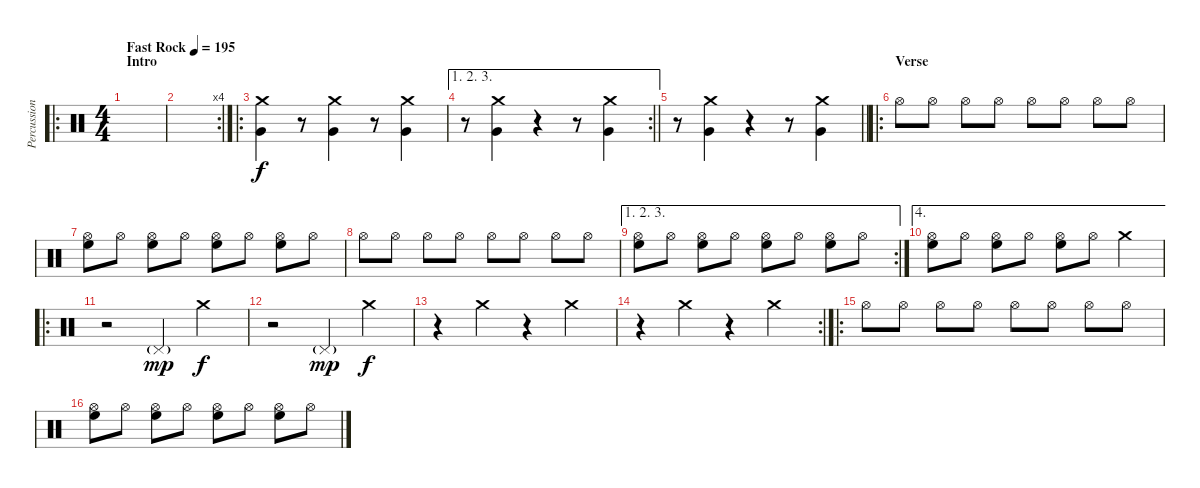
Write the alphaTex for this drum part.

\track ("Percussion" "Percussion") {instrument percussion}
\staff {score}
\articulation defaults
\ro
\ts (4 4)
\section ("" "Intro")
\tempo (195 "Fast Rock")
\clef neutral
\ks c
|
\rc 4
|
\ro
("Very Low Tom (hit)" "Crash medium (hit)").4 r.8 ("Very Low Tom (hit)" "Crash medium (hit)").4 r.8 ("Very Low Tom (hit)" "Crash medium (hit)").4 |
\ae (1 2 3)
\rc 2
\barLineRight lightlight
r.8 ("Very Low Tom (hit)" "Crash medium (hit)").4 r.4 r.8 ("Very Low Tom (hit)" "Crash medium (hit)").4 |
\barLineRight lightlight
r.8 ("Very Low Tom (hit)" "Crash medium (hit)").4 r.4 r.8 ("Very Low Tom (hit)" "Crash medium (hit)").4 |
\ro
\section ("" "Verse")
"Hi-Hat (open)".8 "Hi-Hat (open)".8 "Hi-Hat (open)".8 "Hi-Hat (open)".8 "Hi-Hat (open)".8 "Hi-Hat (open)".8 "Hi-Hat (open)".8 "Hi-Hat (open)".8 |
("High Floor Tom (hit)" "Hi-Hat (open)").8 "Hi-Hat (open)".8 ("High Floor Tom (hit)" "Hi-Hat (open)").8 "Hi-Hat (open)".8 ("High Floor Tom (hit)" "Hi-Hat (open)").8 "Hi-Hat (open)".8 ("High Floor Tom (hit)" "Hi-Hat (open)").8 "Hi-Hat (open)".8 |
"Hi-Hat (open)".8 "Hi-Hat (open)".8 "Hi-Hat (open)".8 "Hi-Hat (open)".8 "Hi-Hat (open)".8 "Hi-Hat (open)".8 "Hi-Hat (open)".8 "Hi-Hat (open)".8 |
\ae (1 2 3)
\rc 2
("High Floor Tom (hit)" "Hi-Hat (open)").8 "Hi-Hat (open)".8 ("High Floor Tom (hit)" "Hi-Hat (open)").8 "Hi-Hat (open)".8 ("High Floor Tom (hit)" "Hi-Hat (open)").8 "Hi-Hat (open)".8 ("High Floor Tom (hit)" "Hi-Hat (open)").8 "Hi-Hat (open)".8 |
\ae 4
("High Floor Tom (hit)" "Hi-Hat (open)").8 "Hi-Hat (open)".8 ("High Floor Tom (hit)" "Hi-Hat (open)").8 "Hi-Hat (open)".8 ("High Floor Tom (hit)" "Hi-Hat (open)").8 "Hi-Hat (open)".8 "Crash medium (hit)".4 |
\ro
r.2 "Pedal Hi-Hat (hit)"{g}.4{dy mp} "Crash medium (hit)".4{dy f} |
r.2 "Pedal Hi-Hat (hit)"{g}.4{dy mp} "Crash medium (hit)".4{dy f} |
r.4 "Crash medium (hit)".4 r.4 "Crash medium (hit)".4 |
\rc 2
r.4 "Crash medium (hit)".4 r.4 "Crash medium (hit)".4 |
\ro "Hi-Hat (open)".8 "Hi-Hat (open)".8 "Hi-Hat (open)".8 "Hi-Hat (open)".8 "Hi-Hat (open)".8 "Hi-Hat (open)".8 "Hi-Hat (open)".8 "Hi-Hat (open)".8
|
("High Floor Tom (hit)" "Hi-Hat (open)").8 "Hi-Hat (open)".8 ("High Floor Tom (hit)" "Hi-Hat (open)").8 "Hi-Hat (open)".8 ("High Floor Tom (hit)" "Hi-Hat (open)").8 "Hi-Hat (open)".8 ("High Floor Tom (hit)" "Hi-Hat (open)").8 "Hi-Hat (open)".8
